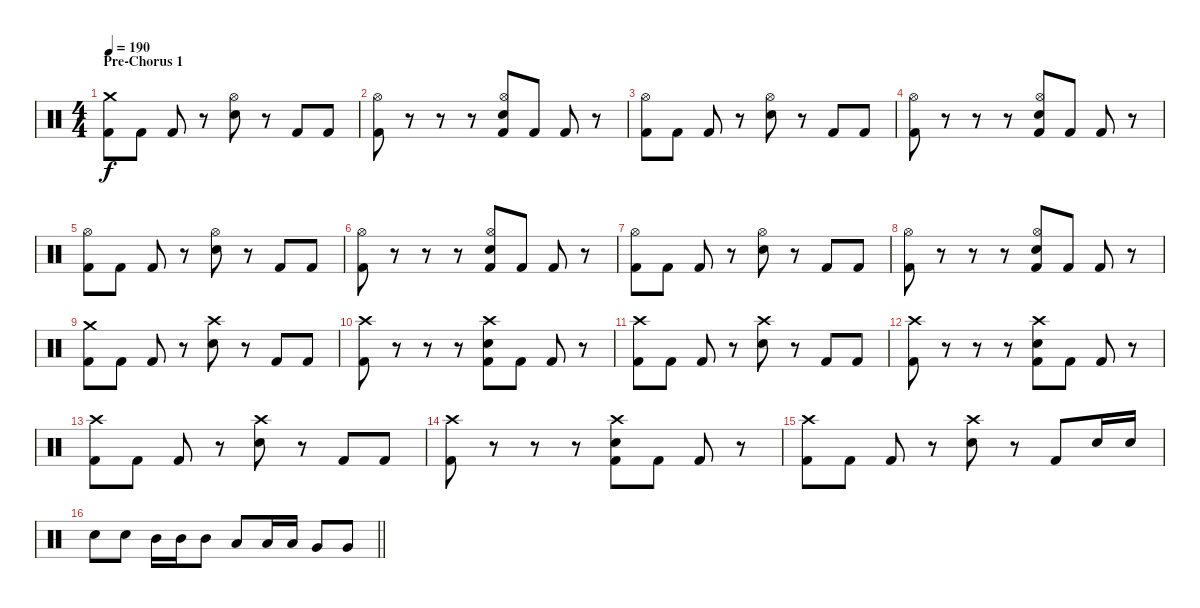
\track "" {instrument percussion}
\staff {score}
\articulation defaults
\ts (4 4)
\section ("" "Pre-Chorus 1")
\tempo 190
\clef neutral
\ks c
("Crash medium (hit)" "Kick (hit) 2").8{dy f} "Kick (hit) 2".8 "Kick (hit) 2".8 r.8 ("Hi-Hat (open)" "Electric Snare (hit)").8 r.8 "Kick (hit) 2".8 "Kick (hit) 2".8 |
("Hi-Hat (open)" "Kick (hit) 2").8 r.8 r.8 r.8 ("Hi-Hat (open)" "Electric Snare (hit)" "Kick (hit) 2").8 "Kick (hit) 2".8 "Kick (hit) 2".8 r.8 |
("Hi-Hat (open)" "Kick (hit) 2").8 "Kick (hit) 2".8 "Kick (hit) 2".8 r.8 ("Hi-Hat (open)" "Electric Snare (hit)").8 r.8 "Kick (hit) 2".8 "Kick (hit) 2".8 |
("Hi-Hat (open)" "Kick (hit) 2").8 r.8 r.8 r.8 ("Hi-Hat (open)" "Electric Snare (hit)" "Kick (hit) 2").8 "Kick (hit) 2".8 "Kick (hit) 2".8 r.8 |
("Hi-Hat (open)" "Kick (hit) 2").8 "Kick (hit) 2".8 "Kick (hit) 2".8 r.8 ("Hi-Hat (open)" "Electric Snare (hit)").8 r.8 "Kick (hit) 2".8 "Kick (hit) 2".8 |
("Hi-Hat (open)" "Kick (hit) 2").8 r.8 r.8 r.8 ("Hi-Hat (open)" "Electric Snare (hit)" "Kick (hit) 2").8 "Kick (hit) 2".8 "Kick (hit) 2".8 r.8 |
("Hi-Hat (open)" "Kick (hit) 2").8 "Kick (hit) 2".8 "Kick (hit) 2".8 r.8 ("Hi-Hat (open)" "Electric Snare (hit)").8 r.8 "Kick (hit) 2".8 "Kick (hit) 2".8 |
("Hi-Hat (open)" "Kick (hit) 2").8 r.8 r.8 r.8 ("Hi-Hat (open)" "Electric Snare (hit)" "Kick (hit) 2").8 "Kick (hit) 2".8 "Kick (hit) 2".8 r.8 |
("Crash medium (hit)" "Kick (hit) 2").8 "Kick (hit) 2".8 "Kick (hit) 2".8 r.8 ("Crash high (hit)" "Electric Snare (hit)").8 r.8 "Kick (hit) 2".8 "Kick (hit) 2".8 |
("Crash high (hit)" "Kick (hit) 2").8 r.8 r.8 r.8 ("Crash high (hit)" "Electric Snare (hit)" "Kick (hit) 2").8 "Kick (hit) 2".8 "Kick (hit) 2".8 r.8 |
("Crash high (hit)" "Kick (hit) 2").8 "Kick (hit) 2".8 "Kick (hit) 2".8 r.8 ("Crash high (hit)" "Electric Snare (hit)").8 r.8 "Kick (hit) 2".8 "Kick (hit) 2".8 |
("Crash high (hit)" "Kick (hit) 2").8 r.8 r.8 r.8 ("Crash high (hit)" "Electric Snare (hit)" "Kick (hit) 2").8 "Kick (hit) 2".8 "Kick (hit) 2".8 r.8 |
("Crash high (hit)" "Kick (hit) 2").8 "Kick (hit) 2".8 "Kick (hit) 2".8 r.8 ("Crash high (hit)" "Electric Snare (hit)").8 r.8 "Kick (hit) 2".8 "Kick (hit) 2".8 |
("Crash high (hit)" "Kick (hit) 2").8 r.8 r.8 r.8 ("Crash high (hit)" "Electric Snare (hit)" "Kick (hit) 2").8 "Kick (hit) 2".8 "Kick (hit) 2".8 r.8 |
("Crash high (hit)" "Kick (hit) 2").8 "Kick (hit) 2".8 "Kick (hit) 2".8 r.8 ("Crash high (hit)" "Electric Snare (hit)").8 r.8 "Kick (hit) 2".8 "Electric Snare (hit)".16 "Electric Snare (hit)".16 |
\barLineRight lightlight "Electric Snare (hit)".8 "Electric Snare (hit)".8 "Mid Tom (hit)".16 "Mid Tom (hit)".16 "Mid Tom (hit)".8 "Low Tom (hit)".8 "Low Tom (hit)".16 "Low Tom (hit)".16 "Very Low Tom (hit)".8 "Very Low Tom (hit)".8
